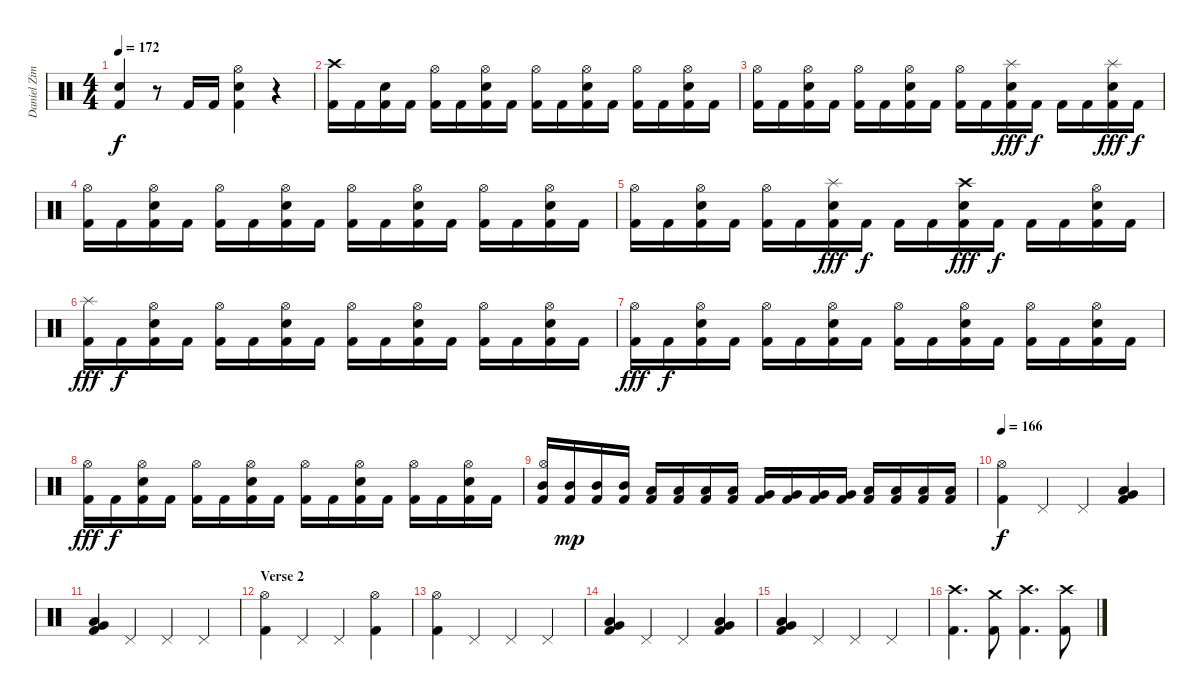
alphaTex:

\track ("Daniel Zimmermann - Drums" "Daniel Zim") {instrument percussion}
\staff {score}
\articulation defaults
\ts (4 4)
\tempo 172
\clef neutral
\ks c
("Kick (hit) 2" "Electric Snare (hit)").4{dy f} r.8 "Kick (hit) 2".16 "Kick (hit) 2".16 ("Kick (hit) 2" "Electric Snare (hit)" "Hi-Hat (open)").4 r.4 |
("Kick (hit) 2" "Crash high (hit)").16 "Kick (hit) 2".16 ("Kick (hit) 2" "Electric Snare (hit)").16 "Kick (hit) 2".16 ("Kick (hit) 2" "Hi-Hat (open)").16 "Kick (hit) 2".16 ("Kick (hit) 2" "Electric Snare (hit)" "Hi-Hat (open)").16 "Kick (hit) 2".16 ("Kick (hit) 2" "Hi-Hat (open)").16 "Kick (hit) 2".16 ("Kick (hit) 2" "Electric Snare (hit)" "Hi-Hat (open)").16 "Kick (hit) 2".16 ("Kick (hit) 2" "Hi-Hat (open)").16 "Kick (hit) 2".16 ("Kick (hit) 2" "Electric Snare (hit)" "Hi-Hat (open)").16 "Kick (hit) 2".16 |
("Kick (hit) 2" "Hi-Hat (open)").16 "Kick (hit) 2".16 ("Kick (hit) 2" "Electric Snare (hit)" "Hi-Hat (open)").16 "Kick (hit) 2".16 ("Kick (hit) 2" "Hi-Hat (open)").16 "Kick (hit) 2".16 ("Kick (hit) 2" "Electric Snare (hit)" "Hi-Hat (open)").16 "Kick (hit) 2".16 ("Kick (hit) 2" "Hi-Hat (open)").16 "Kick (hit) 2".16 ("Kick (hit) 2" "Electric Snare (hit)" "Splash (hit)").16{dy fff} "Kick (hit) 2".16{dy f} "Kick (hit) 2".16 "Kick (hit) 2".16 ("Kick (hit) 2" "Electric Snare (hit)" "Splash (hit)").16{dy fff} "Kick (hit) 2".16{dy f} |
("Kick (hit) 2" "Hi-Hat (open)").16 "Kick (hit) 2".16 ("Kick (hit) 2" "Electric Snare (hit)" "Hi-Hat (open)").16 "Kick (hit) 2".16 ("Kick (hit) 2" "Hi-Hat (open)").16 "Kick (hit) 2".16 ("Kick (hit) 2" "Electric Snare (hit)" "Hi-Hat (open)").16 "Kick (hit) 2".16 ("Kick (hit) 2" "Hi-Hat (open)").16 "Kick (hit) 2".16 ("Kick (hit) 2" "Electric Snare (hit)" "Hi-Hat (open)").16 "Kick (hit) 2".16 ("Kick (hit) 2" "Hi-Hat (open)").16 "Kick (hit) 2".16 ("Kick (hit) 2" "Electric Snare (hit)" "Hi-Hat (open)").16 "Kick (hit) 2".16 |
("Kick (hit) 2" "Hi-Hat (open)").16 "Kick (hit) 2".16 ("Kick (hit) 2" "Electric Snare (hit)" "Hi-Hat (open)").16 "Kick (hit) 2".16 ("Kick (hit) 2" "Hi-Hat (open)").16 "Kick (hit) 2".16 ("Kick (hit) 2" "Electric Snare (hit)" "Splash (hit)").16{dy fff} "Kick (hit) 2".16{dy f} "Kick (hit) 2".16 "Kick (hit) 2".16 ("Kick (hit) 2" "Electric Snare (hit)" "Crash high (hit)").16{dy fff} "Kick (hit) 2".16{dy f} "Kick (hit) 2".16 "Kick (hit) 2".16 ("Kick (hit) 2" "Electric Snare (hit)" "Hi-Hat (open)").16 "Kick (hit) 2".16 |
("Kick (hit) 2" "Splash (hit)").16{dy fff} "Kick (hit) 2".16{dy f} ("Kick (hit) 2" "Electric Snare (hit)" "Hi-Hat (open)").16 "Kick (hit) 2".16 ("Kick (hit) 2" "Hi-Hat (open)").16 "Kick (hit) 2".16 ("Kick (hit) 2" "Electric Snare (hit)" "Hi-Hat (open)").16 "Kick (hit) 2".16 ("Kick (hit) 2" "Hi-Hat (open)").16 "Kick (hit) 2".16 ("Kick (hit) 2" "Electric Snare (hit)" "Hi-Hat (open)").16 "Kick (hit) 2".16 ("Kick (hit) 2" "Hi-Hat (open)").16 "Kick (hit) 2".16 ("Kick (hit) 2" "Electric Snare (hit)" "Hi-Hat (open)").16 "Kick (hit) 2".16 |
("Kick (hit) 2" "Hi-Hat (open)").16{dy fff} "Kick (hit) 2".16{dy f} ("Kick (hit) 2" "Electric Snare (hit)" "Hi-Hat (open)").16 "Kick (hit) 2".16 ("Kick (hit) 2" "Hi-Hat (open)").16 "Kick (hit) 2".16 ("Kick (hit) 2" "Electric Snare (hit)" "Hi-Hat (open)").16 "Kick (hit) 2".16 ("Kick (hit) 2" "Hi-Hat (open)").16 "Kick (hit) 2".16 ("Kick (hit) 2" "Electric Snare (hit)" "Hi-Hat (open)").16 "Kick (hit) 2".16 ("Kick (hit) 2" "Hi-Hat (open)").16 "Kick (hit) 2".16 ("Kick (hit) 2" "Electric Snare (hit)" "Hi-Hat (open)").16 "Kick (hit) 2".16 |
("Kick (hit) 2" "Hi-Hat (open)").16{dy fff} "Kick (hit) 2".16{dy f} ("Kick (hit) 2" "Electric Snare (hit)" "Hi-Hat (open)").16 "Kick (hit) 2".16 ("Kick (hit) 2" "Hi-Hat (open)").16 "Kick (hit) 2".16 ("Kick (hit) 2" "Electric Snare (hit)" "Hi-Hat (open)").16 "Kick (hit) 2".16 ("Kick (hit) 2" "Hi-Hat (open)").16 "Kick (hit) 2".16 ("Kick (hit) 2" "Electric Snare (hit)" "Hi-Hat (open)").16 "Kick (hit) 2".16 ("Kick (hit) 2" "Hi-Hat (open)").16 "Kick (hit) 2".16 ("Kick (hit) 2" "Electric Snare (hit)" "Hi-Hat (open)").16 "Kick (hit) 2".16 |
("Kick (hit) 2" "Mid Tom (hit)" "Hi-Hat (open)").16 ("Kick (hit) 2" "Mid Tom (hit)").16{dy mp} ("Kick (hit) 2" "Mid Tom (hit)").16 ("Kick (hit) 2" "Mid Tom (hit)").16 ("Kick (hit) 2" "Low Tom (hit)").16 ("Kick (hit) 2" "Low Tom (hit)").16 ("Kick (hit) 2" "Low Tom (hit)").16 ("Kick (hit) 2" "Low Tom (hit)").16 ("Kick (hit) 2" "Very Low Tom (hit)").16 ("Kick (hit) 2" "Very Low Tom (hit)").16 ("Kick (hit) 2" "Very Low Tom (hit)").16 ("Kick (hit) 2" "Very Low Tom (hit)").16 ("Kick (hit) 2" "Low Floor Tom (hit)").16 ("Kick (hit) 2" "Low Floor Tom (hit)").16 ("Kick (hit) 2" "Low Floor Tom (hit)").16 ("Kick (hit) 2" "Low Floor Tom (hit)").16 |
\tempo 166
("Kick (hit) 2" "Hi-Hat (open)").4{dy f} "Pedal Hi-Hat (hit)".4 "Pedal Hi-Hat (hit)".4 ("Kick (hit) 2" "Low Tom (hit)" "Very Low Tom (hit)").4 |
("Kick (hit) 2" "Low Tom (hit)" "Very Low Tom (hit)").4 "Pedal Hi-Hat (hit)".4 "Pedal Hi-Hat (hit)".4 "Pedal Hi-Hat (hit)".4 |
\section ("" "Verse 2")
("Kick (hit) 2" "Hi-Hat (open)").4 "Pedal Hi-Hat (hit)".4 "Pedal Hi-Hat (hit)".4 ("Kick (hit) 2" "Hi-Hat (open)").4 |
("Kick (hit) 2" "Hi-Hat (open)").4 "Pedal Hi-Hat (hit)".4 "Pedal Hi-Hat (hit)".4 "Pedal Hi-Hat (hit)".4 |
("Kick (hit) 2" "Low Tom (hit)" "Very Low Tom (hit)").4 "Pedal Hi-Hat (hit)".4 "Pedal Hi-Hat (hit)".4 ("Kick (hit) 2" "Low Tom (hit)" "Very Low Tom (hit)").4 |
("Kick (hit) 2" "Low Tom (hit)" "Very Low Tom (hit)").4 "Pedal Hi-Hat (hit)".4 "Pedal Hi-Hat (hit)".4 "Pedal Hi-Hat (hit)".4 |
("Kick (hit) 2" "Crash high (hit)").4{d} ("Kick (hit) 2" "Crash medium (hit)").8 ("Kick (hit) 2" "Crash high (hit)").4{d} ("Kick (hit) 2" "Crash high (hit)").8
